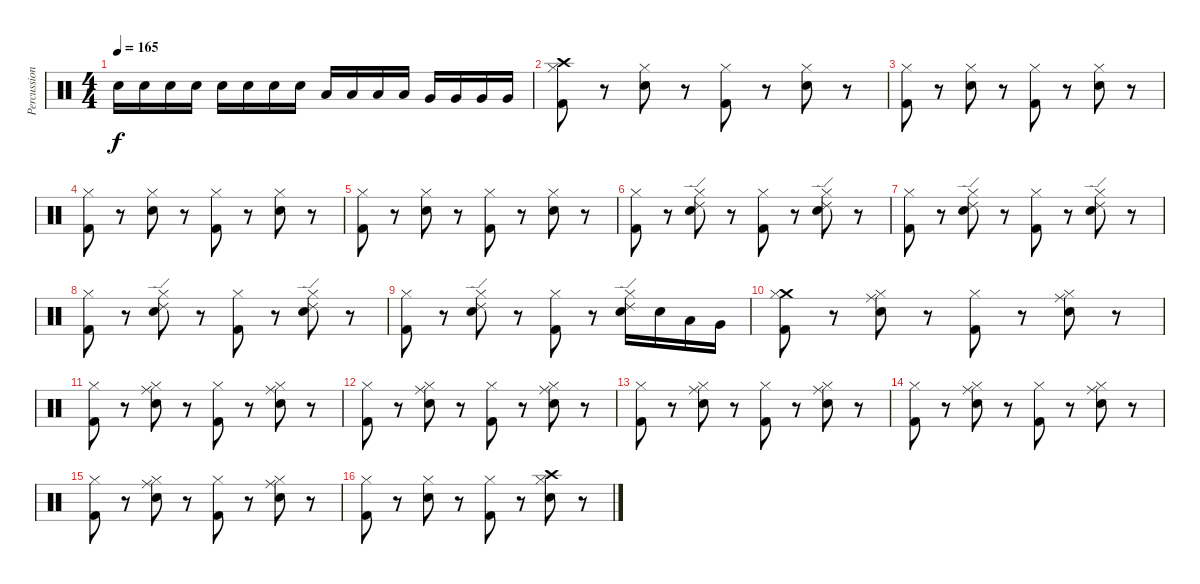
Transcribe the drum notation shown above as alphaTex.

\track ("Percussions" "Percussion") {instrument percussion}
\staff {score}
\articulation defaults
\ts (4 4)
\tempo 165
\clef neutral
\ks c "Electric Snare (hit)".16{dy f} "Electric Snare (hit)".16 "Electric Snare (hit)".16 "Electric Snare (hit)".16 "Electric Snare (hit)".16 "Electric Snare (hit)".16 "Electric Snare (hit)".16 "Electric Snare (hit)".16 "Low Tom (hit)".16 "Low Tom (hit)".16 "Low Tom (hit)".16 "Low Tom (hit)".16 "Very Low Tom (hit)".16 "Very Low Tom (hit)".16 "Very Low Tom (hit)".16 "Very Low Tom (hit)".16
|
("Kick (hit) 2" "Crash high (hit)" "Hi-Hat (closed)").8 r.8 ("Electric Snare (hit)" "Hi-Hat (closed)").8 r.8 ("Kick (hit) 2" "Hi-Hat (closed)").8 r.8 ("Electric Snare (hit)" "Hi-Hat (closed)").8 r.8 |
("Kick (hit) 2" "Hi-Hat (closed)").8 r.8 ("Electric Snare (hit)" "Hi-Hat (closed)").8 r.8 ("Kick (hit) 2" "Hi-Hat (closed)").8 r.8 ("Electric Snare (hit)" "Hi-Hat (closed)").8 r.8 |
("Kick (hit) 2" "Hi-Hat (closed)").8 r.8 ("Electric Snare (hit)" "Hi-Hat (closed)").8 r.8 ("Kick (hit) 2" "Hi-Hat (closed)").8 r.8 ("Electric Snare (hit)" "Hi-Hat (closed)").8 r.8 |
("Kick (hit) 2" "Hi-Hat (closed)").8 r.8 ("Electric Snare (hit)" "Hi-Hat (closed)").8 r.8 ("Kick (hit) 2" "Hi-Hat (closed)").8 r.8 ("Electric Snare (hit)" "Hi-Hat (closed)").8 r.8 |
("Kick (hit) 2" "Hi-Hat (closed)").8 r.8 ("Electric Snare (hit)" "Ride (edge) 2" "Hi-Hat (closed)").8 r.8 ("Kick (hit) 2" "Hi-Hat (closed)").8 r.8 ("Electric Snare (hit)" "Ride (edge) 2" "Hi-Hat (closed)").8 r.8 |
("Kick (hit) 2" "Hi-Hat (closed)").8 r.8 ("Electric Snare (hit)" "Ride (edge) 2" "Hi-Hat (closed)").8 r.8 ("Kick (hit) 2" "Hi-Hat (closed)").8 r.8 ("Electric Snare (hit)" "Ride (edge) 2" "Hi-Hat (closed)").8 r.8 |
("Kick (hit) 2" "Hi-Hat (closed)").8 r.8 ("Electric Snare (hit)" "Ride (edge) 2" "Hi-Hat (closed)").8 r.8 ("Kick (hit) 2" "Hi-Hat (closed)").8 r.8 ("Electric Snare (hit)" "Ride (edge) 2" "Hi-Hat (closed)").8 r.8 |
("Kick (hit) 2" "Hi-Hat (closed)").8 r.8 ("Electric Snare (hit)" "Ride (edge) 2" "Hi-Hat (closed)").8 r.8 ("Kick (hit) 2" "Hi-Hat (closed)").8 r.8 ("Electric Snare (hit)" "Ride (edge) 2" "Hi-Hat (closed)").16 "Electric Snare (hit)".16 "Low Tom (hit)".16 "Very Low Tom (hit)".16 |
("Kick (hit) 2" "Crash medium (hit)" "Hi-Hat (closed)").8 r.8 ("Electric Snare (hit)" "Ride (middle)" "Hi-Hat (closed)").8 r.8 ("Kick (hit) 2" "Hi-Hat (closed)").8 r.8 ("Electric Snare (hit)" "Ride (middle)" "Hi-Hat (closed)").8 r.8 |
("Kick (hit) 2" "Hi-Hat (closed)").8 r.8 ("Electric Snare (hit)" "Ride (middle)" "Hi-Hat (closed)").8 r.8 ("Kick (hit) 2" "Hi-Hat (closed)").8 r.8 ("Electric Snare (hit)" "Ride (middle)" "Hi-Hat (closed)").8 r.8 |
("Kick (hit) 2" "Hi-Hat (closed)").8 r.8 ("Electric Snare (hit)" "Ride (middle)" "Hi-Hat (closed)").8 r.8 ("Kick (hit) 2" "Hi-Hat (closed)").8 r.8 ("Electric Snare (hit)" "Ride (middle)" "Hi-Hat (closed)").8 r.8 |
("Kick (hit) 2" "Hi-Hat (closed)").8 r.8 ("Electric Snare (hit)" "Ride (middle)" "Hi-Hat (closed)").8 r.8 ("Kick (hit) 2" "Hi-Hat (closed)").8 r.8 ("Electric Snare (hit)" "Ride (middle)" "Hi-Hat (closed)").8 r.8 |
("Kick (hit) 2" "Hi-Hat (closed)").8 r.8 ("Electric Snare (hit)" "Ride (middle)" "Hi-Hat (closed)").8 r.8 ("Kick (hit) 2" "Hi-Hat (closed)").8 r.8 ("Electric Snare (hit)" "Ride (middle)" "Hi-Hat (closed)").8 r.8 |
("Kick (hit) 2" "Hi-Hat (closed)").8 r.8 ("Electric Snare (hit)" "Ride (middle)" "Hi-Hat (closed)").8 r.8 ("Kick (hit) 2" "Hi-Hat (closed)").8 r.8 ("Electric Snare (hit)" "Ride (middle)" "Hi-Hat (closed)").8 r.8 |
("Kick (hit) 2" "Hi-Hat (closed)").8 r.8 ("Electric Snare (hit)" "Hi-Hat (closed)").8 r.8 ("Kick (hit) 2" "Hi-Hat (closed)").8 r.8 ("Electric Snare (hit)" "Crash high (hit)" "Hi-Hat (closed)").8 r.8
